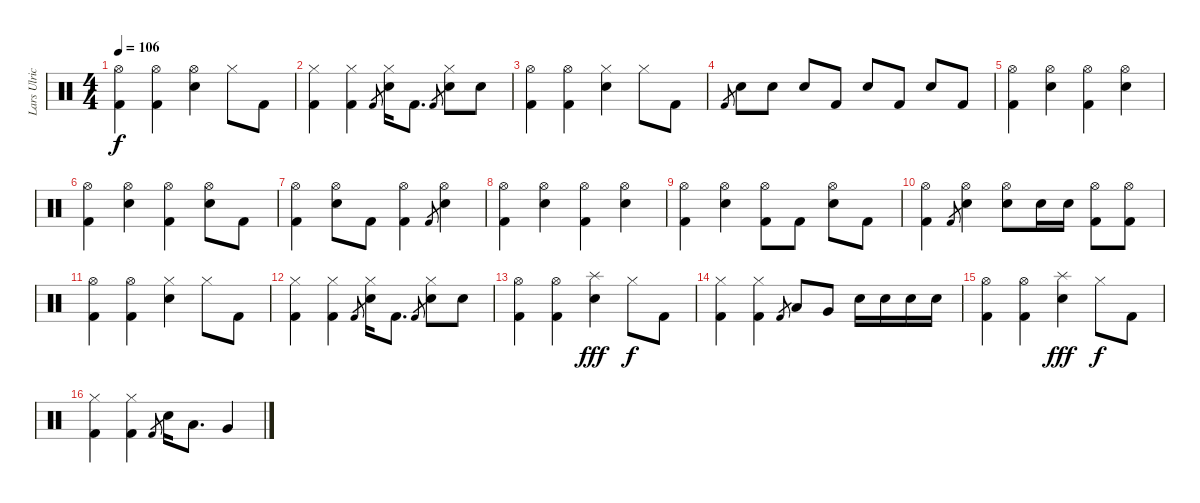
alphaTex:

\track ("Lars Ulrich [Drums]" "Lars Ulric") {instrument percussion}
\staff {score}
\articulation defaults
\ts (4 4)
\tempo 106
\clef neutral
\ks c
("Hi-Hat (open)" "Kick (hit) 2").4{dy f} ("Hi-Hat (open)" "Kick (hit) 2").4 ("Hi-Hat (open)" "Electric Snare (hit)").4 "Hi-Hat (closed)".8 "Kick (hit) 2".8 |
("Hi-Hat (closed)" "Kick (hit) 2").4 ("Hi-Hat (closed)" "Kick (hit) 2").4 "Kick (hit) 2".8{gr} ("Hi-Hat (closed)" "Electric Snare (hit)").16 "Kick (hit) 2".8{d} "Kick (hit) 2".8{gr} ("Hi-Hat (closed)" "Electric Snare (hit)").8 "Electric Snare (hit)".8 |
("Hi-Hat (open)" "Kick (hit) 2").4 ("Hi-Hat (open)" "Kick (hit) 2").4 ("Hi-Hat (closed)" "Electric Snare (hit)").4 "Hi-Hat (closed)".8 "Kick (hit) 2".8 |
"Kick (hit) 2".8{gr} "Electric Snare (hit)".8 "Electric Snare (hit)".8 "Electric Snare (hit)".8 "Kick (hit) 2".8 "Electric Snare (hit)".8 "Kick (hit) 2".8 "Electric Snare (hit)".8 "Kick (hit) 2".8 |
("Hi-Hat (open)" "Kick (hit) 2").4 ("Hi-Hat (open)" "Electric Snare (hit)").4 ("Hi-Hat (open)" "Kick (hit) 2").4 ("Hi-Hat (open)" "Electric Snare (hit)").4 |
("Hi-Hat (open)" "Kick (hit) 2").4 ("Hi-Hat (open)" "Electric Snare (hit)").4 ("Hi-Hat (open)" "Kick (hit) 2").4 ("Hi-Hat (open)" "Electric Snare (hit)").8 "Kick (hit) 2".8 |
("Hi-Hat (open)" "Kick (hit) 2").4 ("Hi-Hat (open)" "Electric Snare (hit)").8 "Kick (hit) 2".8 ("Hi-Hat (open)" "Kick (hit) 2").4 "Kick (hit) 2".8{gr} ("Hi-Hat (open)" "Electric Snare (hit)").4 |
("Hi-Hat (open)" "Kick (hit) 2").4 ("Hi-Hat (open)" "Electric Snare (hit)").4 ("Hi-Hat (open)" "Kick (hit) 2").4 ("Hi-Hat (open)" "Electric Snare (hit)").4 |
("Hi-Hat (open)" "Kick (hit) 2").4 ("Hi-Hat (open)" "Electric Snare (hit)").4 ("Hi-Hat (open)" "Kick (hit) 2").8 "Kick (hit) 2".8 ("Hi-Hat (open)" "Electric Snare (hit)").8 "Kick (hit) 2".8 |
("Hi-Hat (open)" "Kick (hit) 2").4 "Kick (hit) 2".8{gr} ("Hi-Hat (open)" "Electric Snare (hit)").4 ("Hi-Hat (open)" "Electric Snare (hit)").8 "Electric Snare (hit)".16 "Electric Snare (hit)".16 ("Hi-Hat (open)" "Kick (hit) 2").8 ("Hi-Hat (open)" "Kick (hit) 2").8 |
("Hi-Hat (open)" "Kick (hit) 2").4 ("Hi-Hat (open)" "Kick (hit) 2").4 ("Hi-Hat (closed)" "Electric Snare (hit)").4 "Hi-Hat (closed)".8 "Kick (hit) 2".8 |
("Hi-Hat (closed)" "Kick (hit) 2").4 ("Hi-Hat (closed)" "Kick (hit) 2").4 "Kick (hit) 2".8{gr} ("Hi-Hat (closed)" "Electric Snare (hit)").16 "Kick (hit) 2".8{d} "Kick (hit) 2".8{gr} ("Hi-Hat (closed)" "Electric Snare (hit)").8 "Electric Snare (hit)".8 |
("Hi-Hat (open)" "Kick (hit) 2").4 ("Hi-Hat (open)" "Kick (hit) 2").4 ("Splash (hit)" "Electric Snare (hit)").4{dy fff} "Hi-Hat (closed)".8{dy f} "Kick (hit) 2".8 |
("Hi-Hat (closed)" "Kick (hit) 2").4 ("Hi-Hat (closed)" "Kick (hit) 2").4 "Kick (hit) 2".8{gr} "Low Tom (hit)".8 "Very Low Tom (hit)".8 "Electric Snare (hit)".16 "Electric Snare (hit)".16 "Electric Snare (hit)".16 "Electric Snare (hit)".16 |
("Hi-Hat (open)" "Kick (hit) 2").4 ("Hi-Hat (open)" "Kick (hit) 2").4 ("Splash (hit)" "Electric Snare (hit)").4{dy fff} "Hi-Hat (closed)".8{dy f} "Kick (hit) 2".8 |
("Hi-Hat (closed)" "Kick (hit) 2").4 ("Hi-Hat (closed)" "Kick (hit) 2").4 "Kick (hit) 2".8{gr} "Electric Snare (hit)".16 "Low Tom (hit)".8{d} "Very Low Tom (hit)".4
